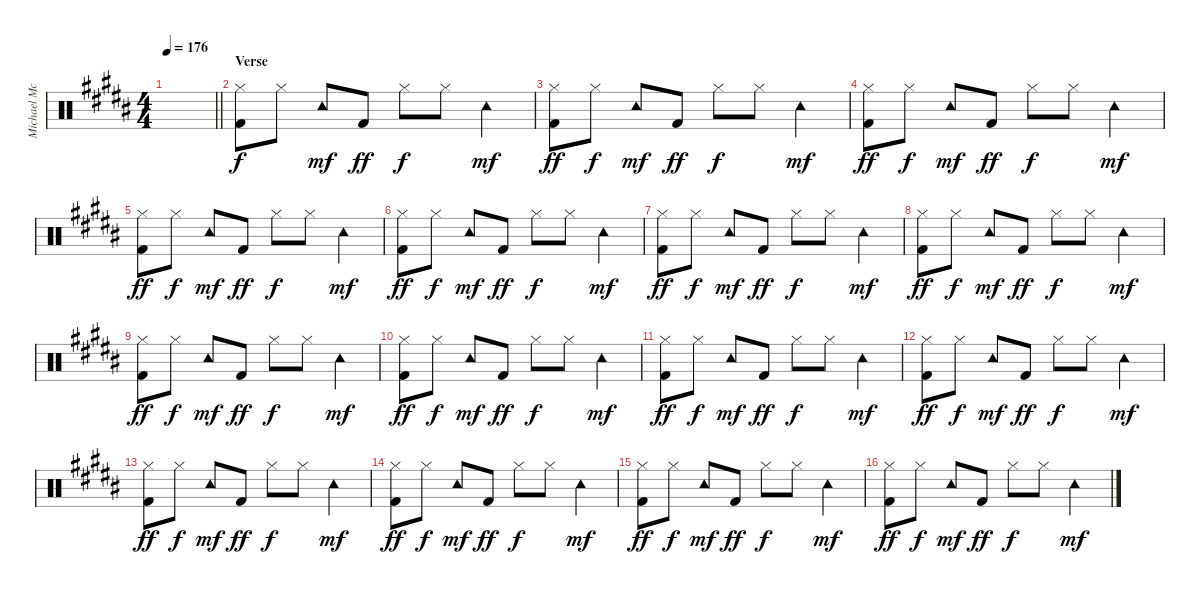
\track ("Michael McDermott - Drums" "Michael Mc") {instrument percussion}
\staff {score}
\articulation defaults
\ts (4 4)
\tempo 176
\clef neutral
\barLineRight lightlight
\ks b
|
\section ("" "Verse")
("Kick (hit) 2" "Hi-Hat (closed)").8 "Hi-Hat (closed)".8{dy f} "Tambourine (hit)".8{dy mf} "Kick (hit) 2".8{dy ff} "Hi-Hat (closed)".8{dy f} "Hi-Hat (closed)".8 "Tambourine (hit)".4{dy mf} |
("Kick (hit) 2" "Hi-Hat (closed)").8{dy ff} "Hi-Hat (closed)".8{dy f} "Tambourine (hit)".8{dy mf} "Kick (hit) 2".8{dy ff} "Hi-Hat (closed)".8{dy f} "Hi-Hat (closed)".8 "Tambourine (hit)".4{dy mf} |
("Kick (hit) 2" "Hi-Hat (closed)").8{dy ff} "Hi-Hat (closed)".8{dy f} "Tambourine (hit)".8{dy mf} "Kick (hit) 2".8{dy ff} "Hi-Hat (closed)".8{dy f} "Hi-Hat (closed)".8 "Tambourine (hit)".4{dy mf} |
("Kick (hit) 2" "Hi-Hat (closed)").8{dy ff} "Hi-Hat (closed)".8{dy f} "Tambourine (hit)".8{dy mf} "Kick (hit) 2".8{dy ff} "Hi-Hat (closed)".8{dy f} "Hi-Hat (closed)".8 "Tambourine (hit)".4{dy mf} |
("Kick (hit) 2" "Hi-Hat (closed)").8{dy ff} "Hi-Hat (closed)".8{dy f} "Tambourine (hit)".8{dy mf} "Kick (hit) 2".8{dy ff} "Hi-Hat (closed)".8{dy f} "Hi-Hat (closed)".8 "Tambourine (hit)".4{dy mf} |
("Kick (hit) 2" "Hi-Hat (closed)").8{dy ff} "Hi-Hat (closed)".8{dy f} "Tambourine (hit)".8{dy mf} "Kick (hit) 2".8{dy ff} "Hi-Hat (closed)".8{dy f} "Hi-Hat (closed)".8 "Tambourine (hit)".4{dy mf} |
("Kick (hit) 2" "Hi-Hat (closed)").8{dy ff} "Hi-Hat (closed)".8{dy f} "Tambourine (hit)".8{dy mf} "Kick (hit) 2".8{dy ff} "Hi-Hat (closed)".8{dy f} "Hi-Hat (closed)".8 "Tambourine (hit)".4{dy mf} |
("Kick (hit) 2" "Hi-Hat (closed)").8{dy ff} "Hi-Hat (closed)".8{dy f} "Tambourine (hit)".8{dy mf} "Kick (hit) 2".8{dy ff} "Hi-Hat (closed)".8{dy f} "Hi-Hat (closed)".8 "Tambourine (hit)".4{dy mf} |
("Kick (hit) 2" "Hi-Hat (closed)").8{dy ff} "Hi-Hat (closed)".8{dy f} "Tambourine (hit)".8{dy mf} "Kick (hit) 2".8{dy ff} "Hi-Hat (closed)".8{dy f} "Hi-Hat (closed)".8 "Tambourine (hit)".4{dy mf} |
("Kick (hit) 2" "Hi-Hat (closed)").8{dy ff} "Hi-Hat (closed)".8{dy f} "Tambourine (hit)".8{dy mf} "Kick (hit) 2".8{dy ff} "Hi-Hat (closed)".8{dy f} "Hi-Hat (closed)".8 "Tambourine (hit)".4{dy mf} |
("Kick (hit) 2" "Hi-Hat (closed)").8{dy ff} "Hi-Hat (closed)".8{dy f} "Tambourine (hit)".8{dy mf} "Kick (hit) 2".8{dy ff} "Hi-Hat (closed)".8{dy f} "Hi-Hat (closed)".8 "Tambourine (hit)".4{dy mf} |
("Kick (hit) 2" "Hi-Hat (closed)").8{dy ff} "Hi-Hat (closed)".8{dy f} "Tambourine (hit)".8{dy mf} "Kick (hit) 2".8{dy ff} "Hi-Hat (closed)".8{dy f} "Hi-Hat (closed)".8 "Tambourine (hit)".4{dy mf} |
("Kick (hit) 2" "Hi-Hat (closed)").8{dy ff} "Hi-Hat (closed)".8{dy f} "Tambourine (hit)".8{dy mf} "Kick (hit) 2".8{dy ff} "Hi-Hat (closed)".8{dy f} "Hi-Hat (closed)".8 "Tambourine (hit)".4{dy mf} |
("Kick (hit) 2" "Hi-Hat (closed)").8{dy ff} "Hi-Hat (closed)".8{dy f} "Tambourine (hit)".8{dy mf} "Kick (hit) 2".8{dy ff} "Hi-Hat (closed)".8{dy f} "Hi-Hat (closed)".8 "Tambourine (hit)".4{dy mf} |
("Kick (hit) 2" "Hi-Hat (closed)").8{dy ff} "Hi-Hat (closed)".8{dy f} "Tambourine (hit)".8{dy mf} "Kick (hit) 2".8{dy ff} "Hi-Hat (closed)".8{dy f} "Hi-Hat (closed)".8 "Tambourine (hit)".4{dy mf}
